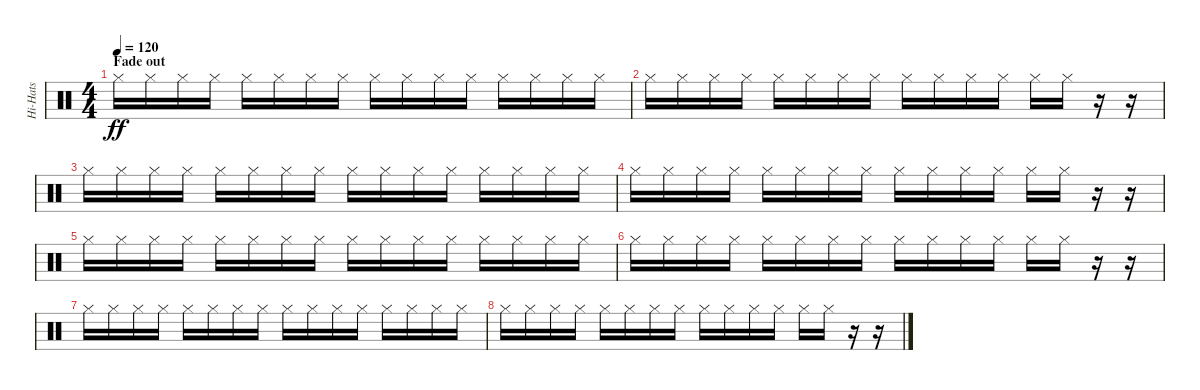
\track ("Hi-Hats" "Hi-Hats") {instrument percussion}
\staff {score}
\articulation defaults
\ts (4 4)
\section ("" "Fade out")
\tempo 120
\clef neutral
\ks c "Hi-Hat (closed)".16{dy ff volume 8} "Hi-Hat (closed)".16 "Hi-Hat (closed)".16 "Hi-Hat (closed)".16 "Hi-Hat (closed)".16 "Hi-Hat (closed)".16 "Hi-Hat (closed)".16 "Hi-Hat (closed)".16 "Hi-Hat (closed)".16 "Hi-Hat (closed)".16 "Hi-Hat (closed)".16 "Hi-Hat (closed)".16 "Hi-Hat (closed)".16 "Hi-Hat (closed)".16 "Hi-Hat (closed)".16 "Hi-Hat (closed)".16
|
"Hi-Hat (closed)".16 "Hi-Hat (closed)".16 "Hi-Hat (closed)".16 "Hi-Hat (closed)".16 "Hi-Hat (closed)".16 "Hi-Hat (closed)".16 "Hi-Hat (closed)".16 "Hi-Hat (closed)".16 "Hi-Hat (closed)".16 "Hi-Hat (closed)".16 "Hi-Hat (closed)".16 "Hi-Hat (closed)".16 "Hi-Hat (closed)".16 "Hi-Hat (closed)".16 r.16 r.16 |
"Hi-Hat (closed)".16 "Hi-Hat (closed)".16 "Hi-Hat (closed)".16 "Hi-Hat (closed)".16 "Hi-Hat (closed)".16 "Hi-Hat (closed)".16 "Hi-Hat (closed)".16 "Hi-Hat (closed)".16 "Hi-Hat (closed)".16 "Hi-Hat (closed)".16 "Hi-Hat (closed)".16 "Hi-Hat (closed)".16 "Hi-Hat (closed)".16 "Hi-Hat (closed)".16 "Hi-Hat (closed)".16 "Hi-Hat (closed)".16 |
"Hi-Hat (closed)".16 "Hi-Hat (closed)".16 "Hi-Hat (closed)".16 "Hi-Hat (closed)".16 "Hi-Hat (closed)".16 "Hi-Hat (closed)".16 "Hi-Hat (closed)".16 "Hi-Hat (closed)".16 "Hi-Hat (closed)".16 "Hi-Hat (closed)".16 "Hi-Hat (closed)".16 "Hi-Hat (closed)".16 "Hi-Hat (closed)".16 "Hi-Hat (closed)".16 r.16 r.16 |
"Hi-Hat (closed)".16{volume 0} "Hi-Hat (closed)".16 "Hi-Hat (closed)".16 "Hi-Hat (closed)".16 "Hi-Hat (closed)".16 "Hi-Hat (closed)".16 "Hi-Hat (closed)".16 "Hi-Hat (closed)".16 "Hi-Hat (closed)".16 "Hi-Hat (closed)".16 "Hi-Hat (closed)".16 "Hi-Hat (closed)".16 "Hi-Hat (closed)".16 "Hi-Hat (closed)".16 "Hi-Hat (closed)".16 "Hi-Hat (closed)".16 |
"Hi-Hat (closed)".16 "Hi-Hat (closed)".16 "Hi-Hat (closed)".16 "Hi-Hat (closed)".16 "Hi-Hat (closed)".16 "Hi-Hat (closed)".16 "Hi-Hat (closed)".16 "Hi-Hat (closed)".16 "Hi-Hat (closed)".16 "Hi-Hat (closed)".16 "Hi-Hat (closed)".16 "Hi-Hat (closed)".16 "Hi-Hat (closed)".16 "Hi-Hat (closed)".16 r.16 r.16 |
"Hi-Hat (closed)".16 "Hi-Hat (closed)".16 "Hi-Hat (closed)".16 "Hi-Hat (closed)".16 "Hi-Hat (closed)".16 "Hi-Hat (closed)".16 "Hi-Hat (closed)".16 "Hi-Hat (closed)".16 "Hi-Hat (closed)".16 "Hi-Hat (closed)".16 "Hi-Hat (closed)".16 "Hi-Hat (closed)".16 "Hi-Hat (closed)".16 "Hi-Hat (closed)".16 "Hi-Hat (closed)".16 "Hi-Hat (closed)".16 |
"Hi-Hat (closed)".16 "Hi-Hat (closed)".16 "Hi-Hat (closed)".16 "Hi-Hat (closed)".16 "Hi-Hat (closed)".16 "Hi-Hat (closed)".16 "Hi-Hat (closed)".16 "Hi-Hat (closed)".16 "Hi-Hat (closed)".16 "Hi-Hat (closed)".16 "Hi-Hat (closed)".16 "Hi-Hat (closed)".16 "Hi-Hat (closed)".16 "Hi-Hat (closed)".16 r.16 r.16
